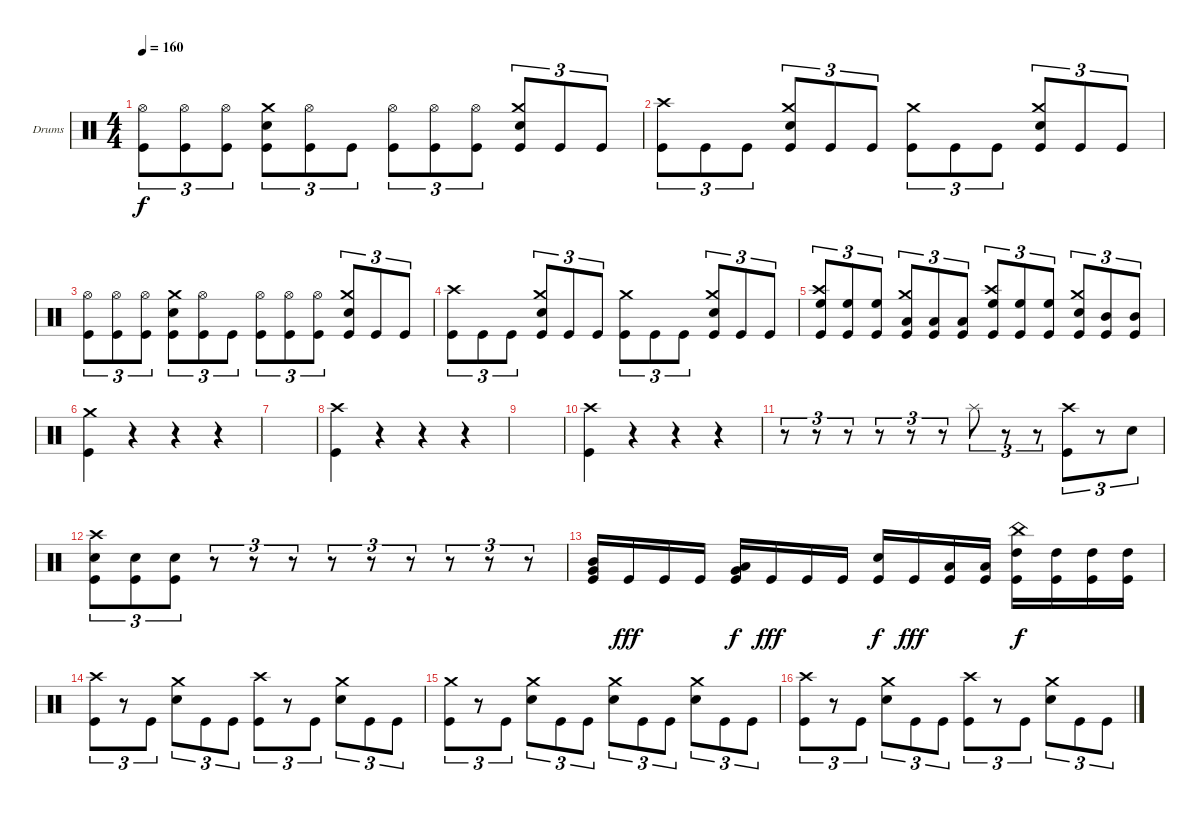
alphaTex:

\defaultSystemsLayout 4
\bracketExtendMode groupsimilarinstruments
\firstSystemTrackNameOrientation horizontal
\otherSystemsTrackNameOrientation horizontal
\track ("Drumkit" "Drums") {instrument percussion}
\staff {score}
\articulation defaults
\ts (4 4)
\tempo 160
\clef neutral
\ks c
("Kick (hit)" "Hi-Hat (open)").8{tu (3 2) dy f} ("Kick (hit)" "Hi-Hat (open)").8{tu (3 2)} ("Kick (hit)" "Hi-Hat (open)").8{tu (3 2)} ("Crash medium (hit)" "Snare (hit) 2" "Kick (hit)").8{tu (3 2)} ("Kick (hit)" "Hi-Hat (open)").8{tu (3 2)} "Kick (hit)".8{tu (3 2)} ("Kick (hit)" "Hi-Hat (open)").8{tu (3 2)} ("Kick (hit)" "Hi-Hat (open)").8{tu (3 2)} ("Kick (hit)" "Hi-Hat (open)").8{tu (3 2)} ("Crash medium (hit)" "Snare (hit) 2" "Kick (hit)").8{tu (3 2)} "Kick (hit)".8{tu (3 2)} "Kick (hit)".8{tu (3 2)} |
("Crash high (hit)" "Kick (hit)").8{tu (3 2)} "Kick (hit)".8{tu (3 2)} "Kick (hit)".8{tu (3 2)} ("Crash medium (hit)" "Snare (hit) 2" "Kick (hit)").8{tu (3 2)} "Kick (hit)".8{tu (3 2)} "Kick (hit)".8{tu (3 2)} ("Crash medium (hit)" "Kick (hit)").8{tu (3 2)} "Kick (hit)".8{tu (3 2)} "Kick (hit)".8{tu (3 2)} ("Crash medium (hit)" "Snare (hit) 2" "Kick (hit)").8{tu (3 2)} "Kick (hit)".8{tu (3 2)} "Kick (hit)".8{tu (3 2)} |
("Kick (hit)" "Hi-Hat (open)").8{tu (3 2)} ("Kick (hit)" "Hi-Hat (open)").8{tu (3 2)} ("Kick (hit)" "Hi-Hat (open)").8{tu (3 2)} ("Crash medium (hit)" "Snare (hit) 2" "Kick (hit)").8{tu (3 2)} ("Kick (hit)" "Hi-Hat (open)").8{tu (3 2)} "Kick (hit)".8{tu (3 2)} ("Kick (hit)" "Hi-Hat (open)").8{tu (3 2)} ("Kick (hit)" "Hi-Hat (open)").8{tu (3 2)} ("Kick (hit)" "Hi-Hat (open)").8{tu (3 2)} ("Crash medium (hit)" "Snare (hit) 2" "Kick (hit)").8{tu (3 2)} "Kick (hit)".8{tu (3 2)} "Kick (hit)".8{tu (3 2)} |
("Crash high (hit)" "Kick (hit)").8{tu (3 2)} "Kick (hit)".8{tu (3 2)} "Kick (hit)".8{tu (3 2)} ("Crash medium (hit)" "Snare (hit) 2" "Kick (hit)").8{tu (3 2)} "Kick (hit)".8{tu (3 2)} "Kick (hit)".8{tu (3 2)} ("Crash medium (hit)" "Kick (hit)").8{tu (3 2)} "Kick (hit)".8{tu (3 2)} "Kick (hit)".8{tu (3 2)} ("Crash medium (hit)" "Snare (hit) 2" "Kick (hit)").8{tu (3 2)} "Kick (hit)".8{tu (3 2)} "Kick (hit)".8{tu (3 2)} |
("Crash high (hit)" "Kick (hit)" "High Floor Tom (hit)").8{tu (3 2)} ("Kick (hit)" "High Floor Tom (hit)").8{tu (3 2)} ("Kick (hit)" "High Floor Tom (hit)").8{tu (3 2)} ("Crash medium (hit)" "Kick (hit)" "Low Tom (hit)").8{tu (3 2)} ("Kick (hit)" "Low Tom (hit)").8{tu (3 2)} ("Kick (hit)" "Low Tom (hit)").8{tu (3 2)} ("Crash high (hit)" "Kick (hit)" "High Floor Tom (hit)").8{tu (3 2)} ("Kick (hit)" "High Floor Tom (hit)").8{tu (3 2)} ("Kick (hit)" "High Floor Tom (hit)").8{tu (3 2)} ("Crash medium (hit)" "Snare (hit) 2" "Kick (hit)").8{tu (3 2)} ("Kick (hit)" "Mid Tom (hit)").8{tu (3 2)} ("Kick (hit)" "Mid Tom (hit)").8{tu (3 2)} |
("Crash medium (hit)" "Kick (hit)").4 r.4 r.4 r.4 |
|
("Crash high (hit)" "Kick (hit)").4 r.4 r.4 r.4 |
|
("Crash high (hit)" "Kick (hit)").4 r.4 r.4 r.4 |
r.8{tu (3 2)} r.8{tu (3 2)} r.8{tu (3 2)} r.8{tu (3 2)} r.8{tu (3 2)} r.8{tu (3 2)} "Splash (hit)".8{tu (3 2)} r.8{tu (3 2)} r.8{tu (3 2)} ("Crash high (hit)" "Kick (hit)").8{tu (3 2)} r.8{tu (3 2)} "Snare (hit) 2".8{tu (3 2)} |
("Crash high (hit)" "Kick (hit)" "Snare (hit) 2").8{tu (3 2)} ("Kick (hit)" "Snare (hit) 2").8{tu (3 2)} ("Kick (hit)" "Snare (hit) 2").8{tu (3 2)} r.8{tu (3 2)} r.8{tu (3 2)} r.8{tu (3 2)} r.8{tu (3 2)} r.8{tu (3 2)} r.8{tu (3 2)} r.8{tu (3 2)} r.8{tu (3 2)} r.8{tu (3 2)} |
("Mid Tom (hit)" "Very Low Tom (hit)" "Kick (hit)").16 "Kick (hit)".16{dy fff} "Kick (hit)".16 "Kick (hit)".16 ("Low Tom (hit)" "Very Low Tom (hit)" "Kick (hit)").16{dy f} "Kick (hit)".16{dy fff} "Kick (hit)".16 "Kick (hit)".16 ("Snare (hit) 2" "Kick (hit)").16{dy f} "Kick (hit)".16{dy fff} ("Low Tom (hit)" "Kick (hit)").16 ("Low Tom (hit)" "Kick (hit)").16 ("High Tom (hit)" "Kick (hit)" "China (hit)").16{dy f} ("High Tom (hit)" "Kick (hit)").16 ("High Tom (hit)" "Kick (hit)").16 ("High Tom (hit)" "Kick (hit)").16 |
("Crash high (hit)" "Kick (hit)").8{tu (3 2)} r.8{tu (3 2)} "Kick (hit)".8{tu (3 2)} ("Crash medium (hit)" "Snare (hit) 2").8{tu (3 2)} "Kick (hit)".8{tu (3 2)} "Kick (hit)".8{tu (3 2)} ("Crash high (hit)" "Kick (hit)").8{tu (3 2)} r.8{tu (3 2)} "Kick (hit)".8{tu (3 2)} ("Crash medium (hit)" "Snare (hit) 2").8{tu (3 2)} "Kick (hit)".8{tu (3 2)} "Kick (hit)".8{tu (3 2)} |
("Crash medium (hit)" "Kick (hit)").8{tu (3 2)} r.8{tu (3 2)} "Kick (hit)".8{tu (3 2)} ("Crash medium (hit)" "Snare (hit) 2").8{tu (3 2)} "Kick (hit)".8{tu (3 2)} "Kick (hit)".8{tu (3 2)} ("Crash medium (hit)" "Snare (hit) 2").8{tu (3 2)} "Kick (hit)".8{tu (3 2)} "Kick (hit)".8{tu (3 2)} ("Crash medium (hit)" "Snare (hit) 2").8{tu (3 2)} "Kick (hit)".8{tu (3 2)} "Kick (hit)".8{tu (3 2)} |
("Crash high (hit)" "Kick (hit)").8{tu (3 2)} r.8{tu (3 2)} "Kick (hit)".8{tu (3 2)} ("Crash medium (hit)" "Snare (hit) 2").8{tu (3 2)} "Kick (hit)".8{tu (3 2)} "Kick (hit)".8{tu (3 2)} ("Crash high (hit)" "Kick (hit)").8{tu (3 2)} r.8{tu (3 2)} "Kick (hit)".8{tu (3 2)} ("Crash medium (hit)" "Snare (hit) 2").8{tu (3 2)} "Kick (hit)".8{tu (3 2)} "Kick (hit)".8{tu (3 2)}
